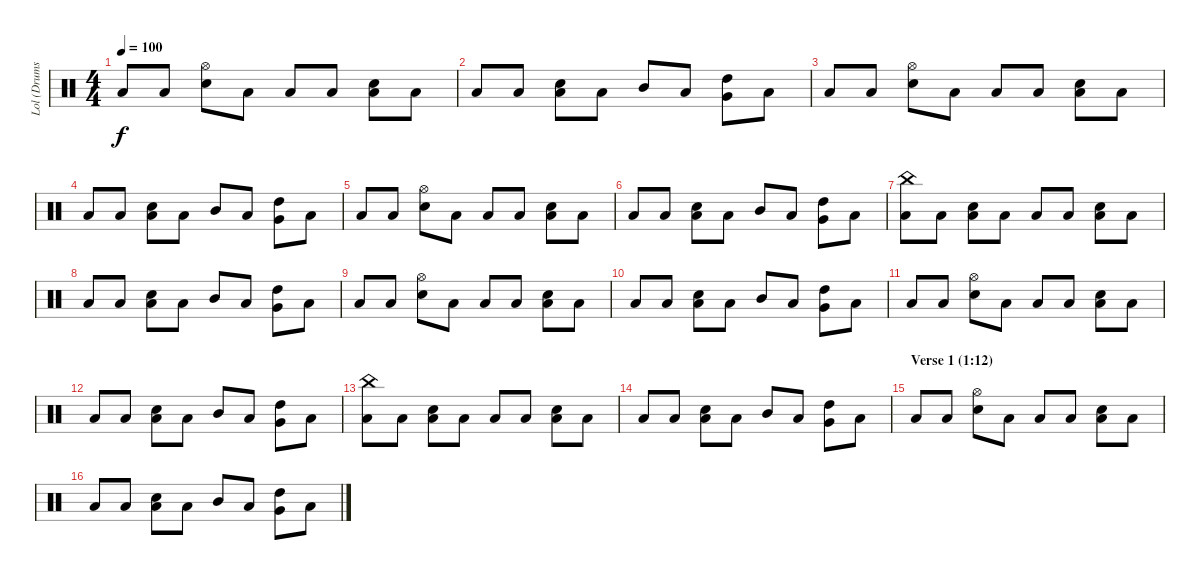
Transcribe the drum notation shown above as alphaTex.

\track ("Lol (Drums)" "Lol (Drums") {instrument percussion}
\staff {score}
\articulation defaults
\ts (4 4)
\tempo 100
\clef neutral
\ks c "Low Tom (hit)".8{dy f} "Low Tom (hit)".8
("Hi-Hat (open)" "Snare (hit) 2").8 "Low Tom (hit)".8 "Low Tom (hit)".8 "Low Tom (hit)".8 ("Low Tom (hit)" "Snare (hit) 2").8 "Low Tom (hit)".8 |
"Low Tom (hit)".8 "Low Tom (hit)".8 ("Low Tom (hit)" "Snare (hit) 2").8 "Low Tom (hit)".8 "Mid Tom (hit)".8 "Low Tom (hit)".8 ("High Tom (hit)" "Very Low Tom (hit)").8 "Low Floor Tom (hit)".8 |
"Low Tom (hit)".8 "Low Tom (hit)".8 ("Hi-Hat (open)" "Snare (hit) 2").8 "Low Tom (hit)".8 "Low Tom (hit)".8 "Low Tom (hit)".8 ("Low Tom (hit)" "Snare (hit) 2").8 "Low Tom (hit)".8 |
"Low Tom (hit)".8 "Low Tom (hit)".8 ("Low Tom (hit)" "Snare (hit) 2").8 "Low Tom (hit)".8 "Mid Tom (hit)".8 "Low Tom (hit)".8 ("High Tom (hit)" "Very Low Tom (hit)").8 "Low Floor Tom (hit)".8 |
"Low Tom (hit)".8 "Low Tom (hit)".8 ("Hi-Hat (open)" "Snare (hit) 2").8 "Low Tom (hit)".8 "Low Tom (hit)".8 "Low Tom (hit)".8 ("Low Tom (hit)" "Snare (hit) 2").8 "Low Tom (hit)".8 |
"Low Tom (hit)".8 "Low Tom (hit)".8 ("Low Tom (hit)" "Snare (hit) 2").8 "Low Tom (hit)".8 "Mid Tom (hit)".8 "Low Tom (hit)".8 ("High Tom (hit)" "Very Low Tom (hit)").8 "Low Floor Tom (hit)".8 |
("China (hit)" "Low Tom (hit)").8 "Low Tom (hit)".8 ("Low Tom (hit)" "Snare (hit) 2").8 "Low Tom (hit)".8 "Low Tom (hit)".8 "Low Tom (hit)".8 ("Low Tom (hit)" "Snare (hit) 2").8 "Low Tom (hit)".8 |
"Low Tom (hit)".8 "Low Tom (hit)".8 ("Low Tom (hit)" "Snare (hit) 2").8 "Low Tom (hit)".8 "Mid Tom (hit)".8 "Low Tom (hit)".8 ("High Tom (hit)" "Very Low Tom (hit)").8 "Low Floor Tom (hit)".8 |
"Low Tom (hit)".8 "Low Tom (hit)".8 ("Hi-Hat (open)" "Snare (hit) 2").8 "Low Tom (hit)".8 "Low Tom (hit)".8 "Low Tom (hit)".8 ("Low Tom (hit)" "Snare (hit) 2").8 "Low Tom (hit)".8 |
"Low Tom (hit)".8 "Low Tom (hit)".8 ("Low Tom (hit)" "Snare (hit) 2").8 "Low Tom (hit)".8 "Mid Tom (hit)".8 "Low Tom (hit)".8 ("High Tom (hit)" "Very Low Tom (hit)").8 "Low Floor Tom (hit)".8 |
"Low Tom (hit)".8 "Low Tom (hit)".8 ("Hi-Hat (open)" "Snare (hit) 2").8 "Low Tom (hit)".8 "Low Tom (hit)".8 "Low Tom (hit)".8 ("Low Tom (hit)" "Snare (hit) 2").8 "Low Tom (hit)".8 |
"Low Tom (hit)".8 "Low Tom (hit)".8 ("Low Tom (hit)" "Snare (hit) 2").8 "Low Tom (hit)".8 "Mid Tom (hit)".8 "Low Tom (hit)".8 ("High Tom (hit)" "Very Low Tom (hit)").8 "Low Floor Tom (hit)".8 |
("China (hit)" "Low Tom (hit)").8 "Low Tom (hit)".8 ("Low Tom (hit)" "Snare (hit) 2").8 "Low Tom (hit)".8 "Low Tom (hit)".8 "Low Tom (hit)".8 ("Low Tom (hit)" "Snare (hit) 2").8 "Low Tom (hit)".8 |
"Low Tom (hit)".8 "Low Tom (hit)".8 ("Low Tom (hit)" "Snare (hit) 2").8 "Low Tom (hit)".8 "Mid Tom (hit)".8 "Low Tom (hit)".8 ("High Tom (hit)" "Very Low Tom (hit)").8 "Low Floor Tom (hit)".8 |
\section ("" "Verse 1 (1:12)")
"Low Tom (hit)".8 "Low Tom (hit)".8 ("Hi-Hat (open)" "Snare (hit) 2").8 "Low Tom (hit)".8 "Low Tom (hit)".8 "Low Tom (hit)".8 ("Low Tom (hit)" "Snare (hit) 2").8 "Low Tom (hit)".8 |
"Low Tom (hit)".8 "Low Tom (hit)".8 ("Low Tom (hit)" "Snare (hit) 2").8 "Low Tom (hit)".8 "Mid Tom (hit)".8 "Low Tom (hit)".8 ("High Tom (hit)" "Very Low Tom (hit)").8 "Low Floor Tom (hit)".8
